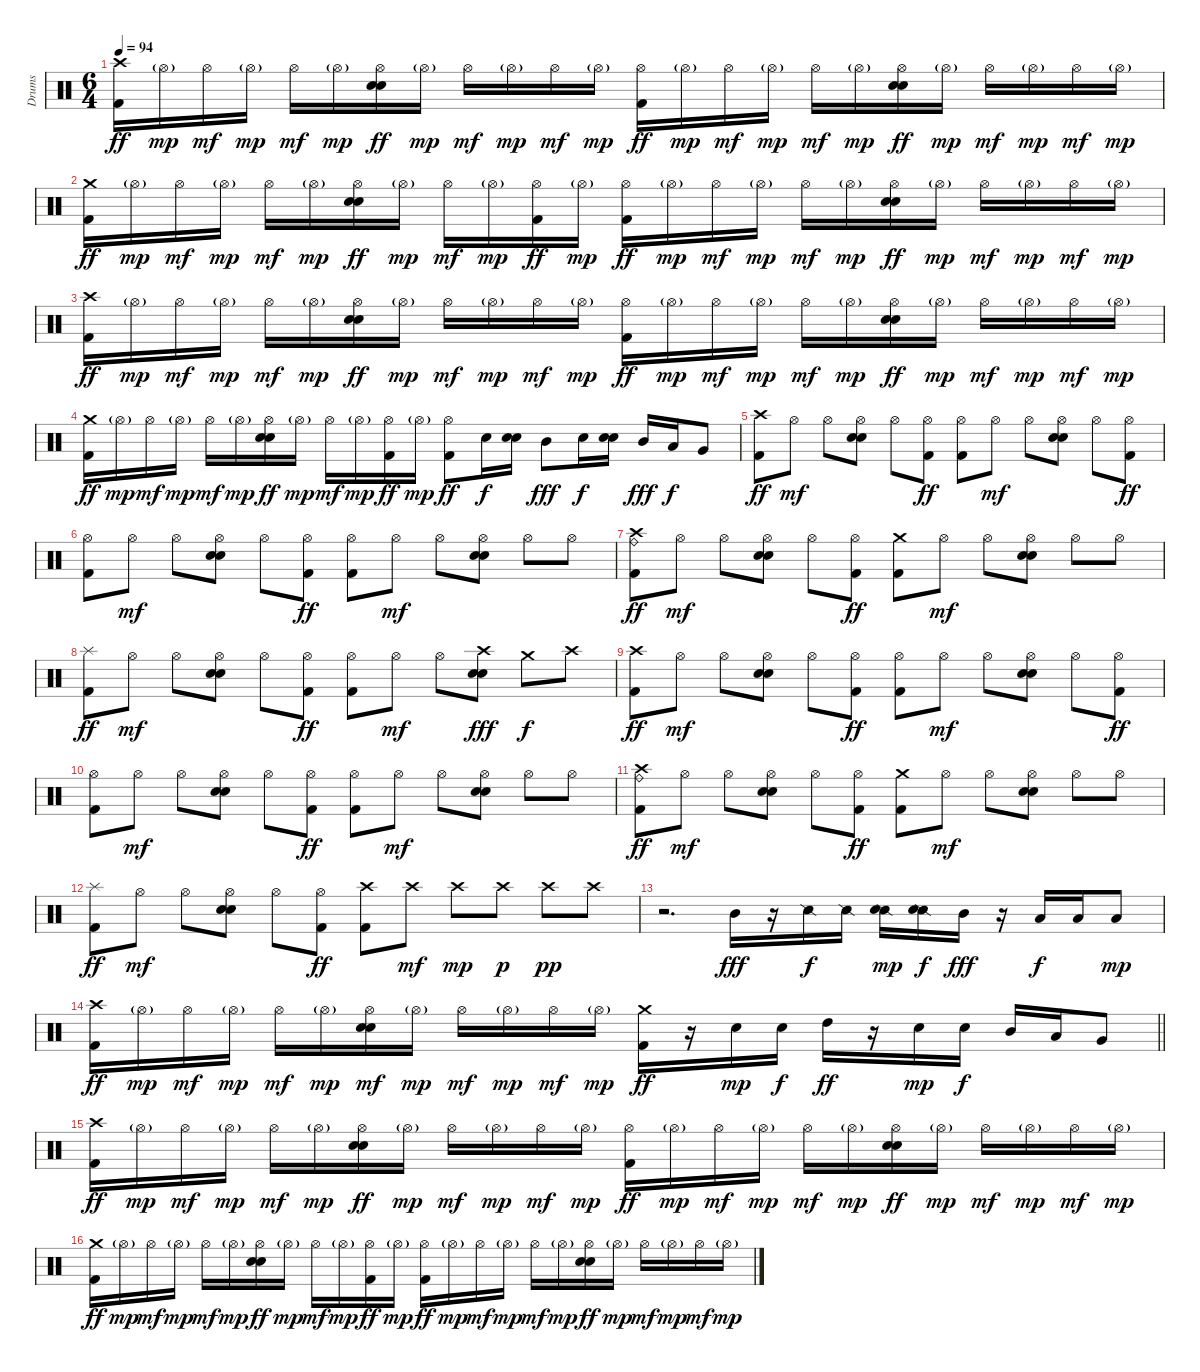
\track ("Drums" "Drums") {instrument percussion}
\staff {score}
\articulation defaults
\ts (6 4)
\tempo 94
\clef neutral
\ks c
("Crash high (hit)" "Kick (hit) 2").16{dy ff} "Hi-Hat (open)"{g}.16{dy mp} "Hi-Hat (open)".16{dy mf} "Hi-Hat (open)"{g}.16{dy mp} "Hi-Hat (open)".16{dy mf} "Hi-Hat (open)"{g}.16{dy mp} ("Hi-Hat (open)" "Electric Snare (hit)" "Metronome (bell)").16{dy ff} "Hi-Hat (open)"{g}.16{dy mp} "Hi-Hat (open)".16{dy mf} "Hi-Hat (open)"{g}.16{dy mp} "Hi-Hat (open)".16{dy mf} "Hi-Hat (open)"{g}.16{dy mp} ("Hi-Hat (open)" "Kick (hit) 2").16{dy ff} "Hi-Hat (open)"{g}.16{dy mp} "Hi-Hat (open)".16{dy mf} "Hi-Hat (open)"{g}.16{dy mp} "Hi-Hat (open)".16{dy mf} "Hi-Hat (open)"{g}.16{dy mp} ("Hi-Hat (open)" "Electric Snare (hit)" "Metronome (bell)").16{dy ff} "Hi-Hat (open)"{g}.16{dy mp} "Hi-Hat (open)".16{dy mf} "Hi-Hat (open)"{g}.16{dy mp} "Hi-Hat (open)".16{dy mf} "Hi-Hat (open)"{g}.16{dy mp} |
("Crash medium (hit)" "Kick (hit) 2").16{dy ff} "Hi-Hat (open)"{g}.16{dy mp} "Hi-Hat (open)".16{dy mf} "Hi-Hat (open)"{g}.16{dy mp} "Hi-Hat (open)".16{dy mf} "Hi-Hat (open)"{g}.16{dy mp} ("Hi-Hat (open)" "Electric Snare (hit)" "Metronome (bell)").16{dy ff} "Hi-Hat (open)"{g}.16{dy mp} "Hi-Hat (open)".16{dy mf} "Hi-Hat (open)"{g}.16{dy mp} ("Hi-Hat (open)" "Kick (hit) 2").16{dy ff} "Hi-Hat (open)"{g}.16{dy mp} ("Hi-Hat (open)" "Kick (hit) 2").16{dy ff} "Hi-Hat (open)"{g}.16{dy mp} "Hi-Hat (open)".16{dy mf} "Hi-Hat (open)"{g}.16{dy mp} "Hi-Hat (open)".16{dy mf} "Hi-Hat (open)"{g}.16{dy mp} ("Hi-Hat (open)" "Electric Snare (hit)" "Metronome (bell)").16{dy ff} "Hi-Hat (open)"{g}.16{dy mp} "Hi-Hat (open)".16{dy mf} "Hi-Hat (open)"{g}.16{dy mp} "Hi-Hat (open)".16{dy mf} "Hi-Hat (open)"{g}.16{dy mp} |
("Crash high (hit)" "Kick (hit) 2").16{dy ff} "Hi-Hat (open)"{g}.16{dy mp} "Hi-Hat (open)".16{dy mf} "Hi-Hat (open)"{g}.16{dy mp} "Hi-Hat (open)".16{dy mf} "Hi-Hat (open)"{g}.16{dy mp} ("Hi-Hat (open)" "Electric Snare (hit)" "Metronome (bell)").16{dy ff} "Hi-Hat (open)"{g}.16{dy mp} "Hi-Hat (open)".16{dy mf} "Hi-Hat (open)"{g}.16{dy mp} "Hi-Hat (open)".16{dy mf} "Hi-Hat (open)"{g}.16{dy mp} ("Hi-Hat (open)" "Kick (hit) 2").16{dy ff} "Hi-Hat (open)"{g}.16{dy mp} "Hi-Hat (open)".16{dy mf} "Hi-Hat (open)"{g}.16{dy mp} "Hi-Hat (open)".16{dy mf} "Hi-Hat (open)"{g}.16{dy mp} ("Hi-Hat (open)" "Electric Snare (hit)" "Metronome (bell)").16{dy ff} "Hi-Hat (open)"{g}.16{dy mp} "Hi-Hat (open)".16{dy mf} "Hi-Hat (open)"{g}.16{dy mp} "Hi-Hat (open)".16{dy mf} "Hi-Hat (open)"{g}.16{dy mp} |
("Crash medium (hit)" "Kick (hit) 2").16{dy ff} "Hi-Hat (open)"{g}.16{dy mp} "Hi-Hat (open)".16{dy mf} "Hi-Hat (open)"{g}.16{dy mp} "Hi-Hat (open)".16{dy mf} "Hi-Hat (open)"{g}.16{dy mp} ("Hi-Hat (open)" "Electric Snare (hit)" "Metronome (bell)").16{dy ff} "Hi-Hat (open)"{g}.16{dy mp} "Hi-Hat (open)".16{dy mf} "Hi-Hat (open)"{g}.16{dy mp} ("Hi-Hat (open)" "Kick (hit) 2").16{dy ff} "Hi-Hat (open)"{g}.16{dy mp} ("Hi-Hat (open)" "Kick (hit) 2").8{dy ff} "Electric Snare (hit)".16{dy f} ("Electric Snare (hit)" "Metronome (bell)").16 "Mid Tom (hit)".8{dy fff} "Electric Snare (hit)".16{dy f} ("Electric Snare (hit)" "Metronome (bell)").16 "Mid Tom (hit)".16{dy fff} "Low Tom (hit)".16{dy f} "Very Low Tom (hit)".8 |
("Crash high (hit)" "Kick (hit) 2").8{dy ff} "Hi-Hat (open)".8{dy mf} "Hi-Hat (open)".8 ("Hi-Hat (open)" "Electric Snare (hit)" "Metronome (bell)").8 "Hi-Hat (open)".8 ("Hi-Hat (open)" "Kick (hit) 2").8{dy ff} ("Hi-Hat (open)" "Kick (hit) 2").8 "Hi-Hat (open)".8{dy mf} "Hi-Hat (open)".8 ("Hi-Hat (open)" "Electric Snare (hit)" "Metronome (bell)").8 "Hi-Hat (open)".8 ("Hi-Hat (open)" "Kick (hit) 2").8{dy ff} |
("Hi-Hat (open)" "Kick (hit) 2").8 "Hi-Hat (open)".8{dy mf} "Hi-Hat (open)".8 ("Hi-Hat (open)" "Electric Snare (hit)" "Metronome (bell)").8 "Hi-Hat (open)".8 ("Hi-Hat (open)" "Kick (hit) 2").8{dy ff} ("Hi-Hat (open)" "Kick (hit) 2").8 "Hi-Hat (open)".8{dy mf} "Hi-Hat (open)".8 ("Hi-Hat (open)" "Electric Snare (hit)" "Metronome (bell)").8 "Hi-Hat (open)".8 "Hi-Hat (open)".8 |
("Crash high (hit)" "Ride (bell)" "Kick (hit) 2").8{dy ff} "Hi-Hat (open)".8{dy mf} "Hi-Hat (open)".8 ("Hi-Hat (open)" "Electric Snare (hit)" "Metronome (bell)").8 "Hi-Hat (open)".8 ("Hi-Hat (open)" "Kick (hit) 2").8{dy ff} ("Crash medium (hit)" "Kick (hit) 2").8 "Hi-Hat (open)".8{dy mf} "Hi-Hat (open)".8 ("Hi-Hat (open)" "Electric Snare (hit)" "Metronome (bell)").8 "Hi-Hat (open)".8 "Hi-Hat (open)".8 |
("Splash (hit)" "Kick (hit) 2").8{dy ff} "Hi-Hat (open)".8{dy mf} "Hi-Hat (open)".8 ("Hi-Hat (open)" "Electric Snare (hit)" "Metronome (bell)").8 "Hi-Hat (open)".8 ("Hi-Hat (open)" "Kick (hit) 2").8{dy ff} ("Hi-Hat (open)" "Kick (hit) 2").8 "Hi-Hat (open)".8{dy mf} "Hi-Hat (open)".8 ("Crash high (hit)" "Electric Snare (hit)" "Metronome (bell)").8{dy fff} "Crash medium (hit)".8{dy f} "Crash high (hit)".8 |
("Crash high (hit)" "Kick (hit) 2").8{dy ff} "Hi-Hat (open)".8{dy mf} "Hi-Hat (open)".8 ("Hi-Hat (open)" "Electric Snare (hit)" "Metronome (bell)").8 "Hi-Hat (open)".8 ("Hi-Hat (open)" "Kick (hit) 2").8{dy ff} ("Hi-Hat (open)" "Kick (hit) 2").8 "Hi-Hat (open)".8{dy mf} "Hi-Hat (open)".8 ("Hi-Hat (open)" "Electric Snare (hit)" "Metronome (bell)").8 "Hi-Hat (open)".8 ("Hi-Hat (open)" "Kick (hit) 2").8{dy ff} |
("Hi-Hat (open)" "Kick (hit) 2").8 "Hi-Hat (open)".8{dy mf} "Hi-Hat (open)".8 ("Hi-Hat (open)" "Electric Snare (hit)" "Metronome (bell)").8 "Hi-Hat (open)".8 ("Hi-Hat (open)" "Kick (hit) 2").8{dy ff} ("Hi-Hat (open)" "Kick (hit) 2").8 "Hi-Hat (open)".8{dy mf} "Hi-Hat (open)".8 ("Hi-Hat (open)" "Electric Snare (hit)" "Metronome (bell)").8 "Hi-Hat (open)".8 "Hi-Hat (open)".8 |
("Crash high (hit)" "Ride (bell)" "Kick (hit) 2").8{dy ff} "Hi-Hat (open)".8{dy mf} "Hi-Hat (open)".8 ("Hi-Hat (open)" "Electric Snare (hit)" "Metronome (bell)").8 "Hi-Hat (open)".8 ("Hi-Hat (open)" "Kick (hit) 2").8{dy ff} ("Crash medium (hit)" "Kick (hit) 2").8 "Hi-Hat (open)".8{dy mf} "Hi-Hat (open)".8 ("Hi-Hat (open)" "Electric Snare (hit)" "Metronome (bell)").8 "Hi-Hat (open)".8 "Hi-Hat (open)".8 |
("Splash (hit)" "Kick (hit) 2").8{dy ff} "Hi-Hat (open)".8{dy mf} "Hi-Hat (open)".8 ("Hi-Hat (open)" "Electric Snare (hit)" "Metronome (bell)").8 "Hi-Hat (open)".8 ("Hi-Hat (open)" "Kick (hit) 2").8{dy ff} ("Crash high (hit)" "Kick (hit) 2").8 "Crash high (hit)".8{dy mf} "Crash high (hit)".8{dy mp} "Crash high (hit)".8{dy p} "Crash high (hit)".8{dy pp} "Crash high (hit)".8 |
r.2{d} "Mid Tom (hit)".16{dy fff} r.16 "Snare (side stick) 2".16{dy f} "Snare (side stick) 2".16 ("Snare (side stick) 2" "Electric Snare (hit)").16{dy mp} ("Snare (side stick) 2" "Electric Snare (hit)").16{dy f} "Mid Tom (hit)".16{dy fff} r.16 "Low Tom (hit)".16{dy f} "Low Tom (hit)".16 "Low Floor Tom (hit)".8{dy mp} |
\barLineRight lightlight
("Crash high (hit)" "Kick (hit) 2").16{dy ff} "Hi-Hat (open)"{g}.16{dy mp} "Hi-Hat (open)".16{dy mf} "Hi-Hat (open)"{g}.16{dy mp} "Hi-Hat (open)".16{dy mf} "Hi-Hat (open)"{g}.16{dy mp} ("Hi-Hat (open)" "Electric Snare (hit)" "Metronome (bell)").16{dy mf} "Hi-Hat (open)"{g}.16{dy mp} "Hi-Hat (open)".16{dy mf} "Hi-Hat (open)"{g}.16{dy mp} "Hi-Hat (open)".16{dy mf} "Hi-Hat (open)"{g}.16{dy mp} ("Crash medium (hit)" "Kick (hit) 2").16{dy ff} r.16 "Electric Snare (hit)".16{dy mp} "Electric Snare (hit)".16{dy f} "High Tom (hit)".16{dy ff} r.16 "Electric Snare (hit)".16{dy mp} "Electric Snare (hit)".16{dy f} "Mid Tom (hit)".16 "Low Tom (hit)".16 "Very Low Tom (hit)".8 |
("Crash high (hit)" "Kick (hit) 2").16{dy ff} "Hi-Hat (open)"{g}.16{dy mp} "Hi-Hat (open)".16{dy mf} "Hi-Hat (open)"{g}.16{dy mp} "Hi-Hat (open)".16{dy mf} "Hi-Hat (open)"{g}.16{dy mp} ("Hi-Hat (open)" "Electric Snare (hit)" "Metronome (bell)").16{dy ff} "Hi-Hat (open)"{g}.16{dy mp} "Hi-Hat (open)".16{dy mf} "Hi-Hat (open)"{g}.16{dy mp} "Hi-Hat (open)".16{dy mf} "Hi-Hat (open)"{g}.16{dy mp} ("Hi-Hat (open)" "Kick (hit) 2").16{dy ff} "Hi-Hat (open)"{g}.16{dy mp} "Hi-Hat (open)".16{dy mf} "Hi-Hat (open)"{g}.16{dy mp} "Hi-Hat (open)".16{dy mf} "Hi-Hat (open)"{g}.16{dy mp} ("Hi-Hat (open)" "Electric Snare (hit)" "Metronome (bell)").16{dy ff} "Hi-Hat (open)"{g}.16{dy mp} "Hi-Hat (open)".16{dy mf} "Hi-Hat (open)"{g}.16{dy mp} "Hi-Hat (open)".16{dy mf} "Hi-Hat (open)"{g}.16{dy mp} |
("Crash medium (hit)" "Kick (hit) 2").16{dy ff} "Hi-Hat (open)"{g}.16{dy mp} "Hi-Hat (open)".16{dy mf} "Hi-Hat (open)"{g}.16{dy mp} "Hi-Hat (open)".16{dy mf} "Hi-Hat (open)"{g}.16{dy mp} ("Hi-Hat (open)" "Electric Snare (hit)" "Metronome (bell)").16{dy ff} "Hi-Hat (open)"{g}.16{dy mp} "Hi-Hat (open)".16{dy mf} "Hi-Hat (open)"{g}.16{dy mp} ("Hi-Hat (open)" "Kick (hit) 2").16{dy ff} "Hi-Hat (open)"{g}.16{dy mp} ("Hi-Hat (open)" "Kick (hit) 2").16{dy ff} "Hi-Hat (open)"{g}.16{dy mp} "Hi-Hat (open)".16{dy mf} "Hi-Hat (open)"{g}.16{dy mp} "Hi-Hat (open)".16{dy mf} "Hi-Hat (open)"{g}.16{dy mp} ("Hi-Hat (open)" "Electric Snare (hit)" "Metronome (bell)").16{dy ff} "Hi-Hat (open)"{g}.16{dy mp} "Hi-Hat (open)".16{dy mf} "Hi-Hat (open)"{g}.16{dy mp} "Hi-Hat (open)".16{dy mf} "Hi-Hat (open)"{g}.16{dy mp}
